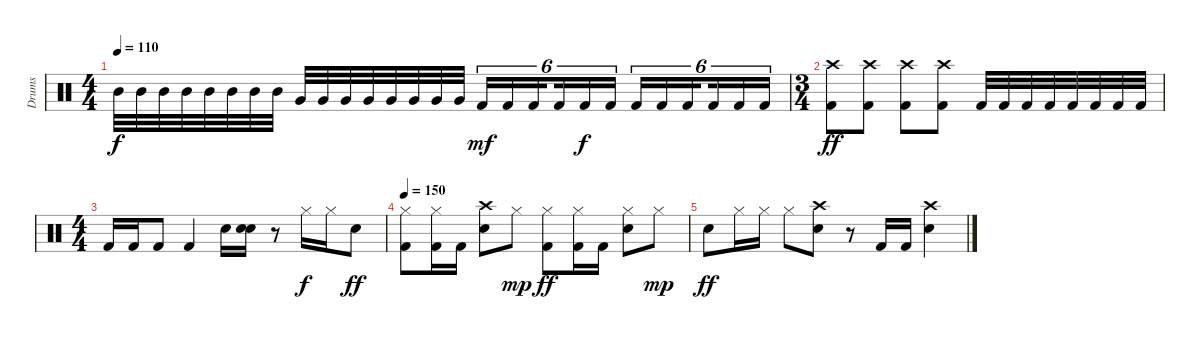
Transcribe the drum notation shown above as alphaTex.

\track ("Drums" "Drums") {instrument percussion}
\staff {score}
\articulation defaults
\ts (4 4)
\tempo 110
\clef neutral
\ks c "Mid Tom (hit)".32{dy f} "Mid Tom (hit)".32 "Mid Tom (hit)".32 "Mid Tom (hit)".32 "Mid Tom (hit)".32 "Mid Tom (hit)".32 "Mid Tom (hit)".32 "Mid Tom (hit)".32 "Very Low Tom (hit)".32 "Very Low Tom (hit)".32 "Very Low Tom (hit)".32 "Very Low Tom (hit)".32 "Very Low Tom (hit)".32 "Very Low Tom (hit)".32 "Very Low Tom (hit)".32 "Very Low Tom (hit)".32 "Kick (hit) 2".16{tu (6 4) dy mf} "Kick (hit) 2".16{tu (6 4)} "Kick (hit) 2".16{tu (6 4) beam splitsecondary} "Kick (hit) 2".16{tu (6 4)} "Kick (hit) 2".16{tu (6 4) dy f} "Kick (hit) 2".16{tu (6 4)} "Kick (hit) 2".16{tu (6 4)} "Kick (hit) 2".16{tu (6 4)} "Kick (hit) 2".16{tu (6 4) beam splitsecondary} "Kick (hit) 2".16{tu (6 4)} "Kick (hit) 2".16{tu (6 4)} "Kick (hit) 2".16{tu (6 4)}
|
\ts (3 4)
("Kick (hit) 2" "Crash high (hit)").8{dy ff} ("Kick (hit) 2" "Crash high (hit)").8 ("Kick (hit) 2" "Crash high (hit)").8 ("Kick (hit) 2" "Crash high (hit)").8 "Kick (hit) 2".32 "Kick (hit) 2".32 "Kick (hit) 2".32 "Kick (hit) 2".32 "Kick (hit) 2".32 "Kick (hit) 2".32 "Kick (hit) 2".32 "Kick (hit) 2".32 |
\ts (4 4)
"Kick (hit) 2".16 "Kick (hit) 2".16 "Kick (hit) 2".8 "Kick (hit) 2".4 "Snare (hit) 2".16 ("Snare (hit) 2" "Snare (hit) 2").16 r.8 "Hi-Hat (closed)".16{dy f} "Hi-Hat (closed)".16 "Snare (hit) 2".8{dy ff} |
\tempo 150
("Hi-Hat (closed)" "Kick (hit) 2").8 ("Hi-Hat (closed)" "Kick (hit) 2").16 "Kick (hit) 2".16 ("Crash high (hit)" "Snare (hit) 2").8 "Hi-Hat (closed)".8{dy mp} ("Hi-Hat (closed)" "Kick (hit) 2").8{dy ff} ("Hi-Hat (closed)" "Kick (hit) 2").16 "Kick (hit) 2".16 ("Hi-Hat (closed)" "Snare (hit) 2").8 "Hi-Hat (closed)".8{dy mp} |
"Snare (hit) 2".8{dy ff} "Hi-Hat (closed)".16 "Hi-Hat (closed)".16 "Hi-Hat (closed)".8 ("Crash high (hit)" "Snare (hit) 2").8 r.8 "Kick (hit) 2".16 "Kick (hit) 2".16 ("Crash high (hit)" "Snare (hit) 2").4
